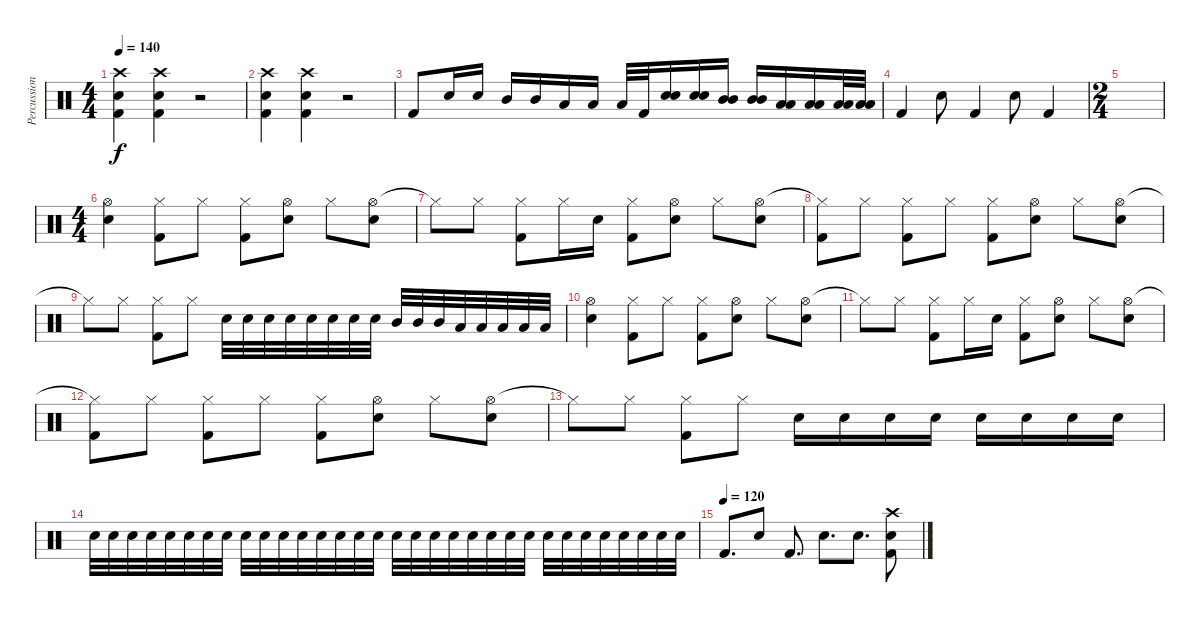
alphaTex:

\track ("Percussion" "Percussion") {instrument percussion}
\staff {score}
\articulation defaults
\ts (4 4)
\tempo 140
\clef neutral
\ks c
("Crash high (hit)" "Electric Snare (hit)" "Kick (hit) 2").4{dy f} ("Crash high (hit)" "Electric Snare (hit)" "Kick (hit) 2").4 r.2 |
("Crash high (hit)" "Electric Snare (hit)" "Kick (hit) 2").4 ("Crash high (hit)" "Electric Snare (hit)" "Kick (hit) 2").4 r.2 |
"Kick (hit) 2".8 "Electric Snare (hit)".16 "Electric Snare (hit)".16 "Mid Tom (hit)".16 "Mid Tom (hit)".16 "Low Tom (hit)".16 "Low Tom (hit)".16 "Low Floor Tom (hit)".32 "Kick (hit) 2".32 ("Electric Snare (hit)" "Electric Snare (hit)").16 ("Electric Snare (hit)" "Electric Snare (hit)").16 ("Mid Tom (hit)" "Mid Tom (hit)").16 ("Mid Tom (hit)" "Mid Tom (hit)").16 ("Low Tom (hit)" "Low Tom (hit)").16 ("Low Tom (hit)" "Low Tom (hit)").16 ("Low Floor Tom (hit)" "Low Floor Tom (hit)").32 ("Low Floor Tom (hit)" "Low Floor Tom (hit)").32 |
"Kick (hit) 2".4 "Electric Snare (hit)".8 "Kick (hit) 2".4 "Electric Snare (hit)".8 "Kick (hit) 2".4 |
\ts (2 4)
|
\ts (4 4)
("Hi-Hat (open)" "Electric Snare (hit)").4 ("Hi-Hat (closed)" "Kick (hit) 2").8 "Hi-Hat (closed)".8 ("Hi-Hat (closed)" "Kick (hit) 2").8 ("Hi-Hat (open)" "Electric Snare (hit)").8 "Hi-Hat (closed)".8 ("Hi-Hat (open)" "Electric Snare (hit)").8 |
"Hi-Hat (closed)"{t}.8 "Hi-Hat (closed)".8 ("Hi-Hat (closed)" "Kick (hit) 2").8 "Hi-Hat (closed)".16 "Electric Snare (hit)".16 ("Hi-Hat (closed)" "Kick (hit) 2").8 ("Hi-Hat (open)" "Electric Snare (hit)").8 "Hi-Hat (closed)".8 ("Hi-Hat (open)" "Electric Snare (hit)").8 |
("Hi-Hat (closed)"{t} "Kick (hit) 2").8 "Hi-Hat (closed)".8 ("Hi-Hat (closed)" "Kick (hit) 2").8 "Hi-Hat (closed)".8 ("Hi-Hat (closed)" "Kick (hit) 2").8 ("Hi-Hat (open)" "Electric Snare (hit)").8 "Hi-Hat (closed)".8 ("Hi-Hat (open)" "Electric Snare (hit)").8 |
"Hi-Hat (closed)"{t}.8 "Hi-Hat (closed)".8 ("Hi-Hat (closed)" "Kick (hit) 2").8 "Hi-Hat (closed)".8 "Electric Snare (hit)".32 "Electric Snare (hit)".32 "Electric Snare (hit)".32 "Electric Snare (hit)".32 "Electric Snare (hit)".32 "Electric Snare (hit)".32 "Electric Snare (hit)".32 "Electric Snare (hit)".32 "Mid Tom (hit)".32 "Mid Tom (hit)".32 "Mid Tom (hit)".32 "Low Tom (hit)".32 "Low Tom (hit)".32 "Low Tom (hit)".32 "Low Floor Tom (hit)".32 "Low Floor Tom (hit)".32 |
("Hi-Hat (open)" "Electric Snare (hit)").4 ("Hi-Hat (closed)" "Kick (hit) 2").8 "Hi-Hat (closed)".8 ("Hi-Hat (closed)" "Kick (hit) 2").8 ("Hi-Hat (open)" "Electric Snare (hit)").8 "Hi-Hat (closed)".8 ("Hi-Hat (open)" "Electric Snare (hit)").8 |
"Hi-Hat (closed)"{t}.8 "Hi-Hat (closed)".8 ("Hi-Hat (closed)" "Kick (hit) 2").8 "Hi-Hat (closed)".16 "Electric Snare (hit)".16 ("Hi-Hat (closed)" "Kick (hit) 2").8 ("Hi-Hat (open)" "Electric Snare (hit)").8 "Hi-Hat (closed)".8 ("Hi-Hat (open)" "Electric Snare (hit)").8 |
("Hi-Hat (closed)"{t} "Kick (hit) 2").8 "Hi-Hat (closed)".8 ("Hi-Hat (closed)" "Kick (hit) 2").8 "Hi-Hat (closed)".8 ("Hi-Hat (closed)" "Kick (hit) 2").8 ("Hi-Hat (open)" "Electric Snare (hit)").8 "Hi-Hat (closed)".8 ("Hi-Hat (open)" "Electric Snare (hit)").8 |
"Hi-Hat (closed)"{t}.8 "Hi-Hat (closed)".8 ("Hi-Hat (closed)" "Kick (hit) 2").8 "Hi-Hat (closed)".8 "Electric Snare (hit)".16 "Electric Snare (hit)".16 "Electric Snare (hit)".16 "Electric Snare (hit)".16 "Electric Snare (hit)".16 "Electric Snare (hit)".16 "Electric Snare (hit)".16 "Electric Snare (hit)".16 |
"Electric Snare (hit)".32{volume 5} "Electric Snare (hit)".32{volume 13} "Electric Snare (hit)".32 "Electric Snare (hit)".32 "Electric Snare (hit)".32 "Electric Snare (hit)".32 "Electric Snare (hit)".32 "Electric Snare (hit)".32 "Electric Snare (hit)".32 "Electric Snare (hit)".32 "Electric Snare (hit)".32 "Electric Snare (hit)".32 "Electric Snare (hit)".32 "Electric Snare (hit)".32 "Electric Snare (hit)".32 "Electric Snare (hit)".32 "Electric Snare (hit)".32 "Electric Snare (hit)".32 "Electric Snare (hit)".32 "Electric Snare (hit)".32 "Electric Snare (hit)".32 "Electric Snare (hit)".32 "Electric Snare (hit)".32 "Electric Snare (hit)".32 "Electric Snare (hit)".32 "Electric Snare (hit)".32 "Electric Snare (hit)".32 "Electric Snare (hit)".32 "Electric Snare (hit)".32 "Electric Snare (hit)".32 "Electric Snare (hit)".32 "Electric Snare (hit)".32 |
\tempo (120)
"Kick (hit) 2".8{d} "Electric Snare (hit)".8 "Kick (hit) 2".8{d} "Electric Snare (hit)".8{d} "Electric Snare (hit)".8{d} ("Crash high (hit)" "Electric Snare (hit)" "Kick (hit) 2").8
